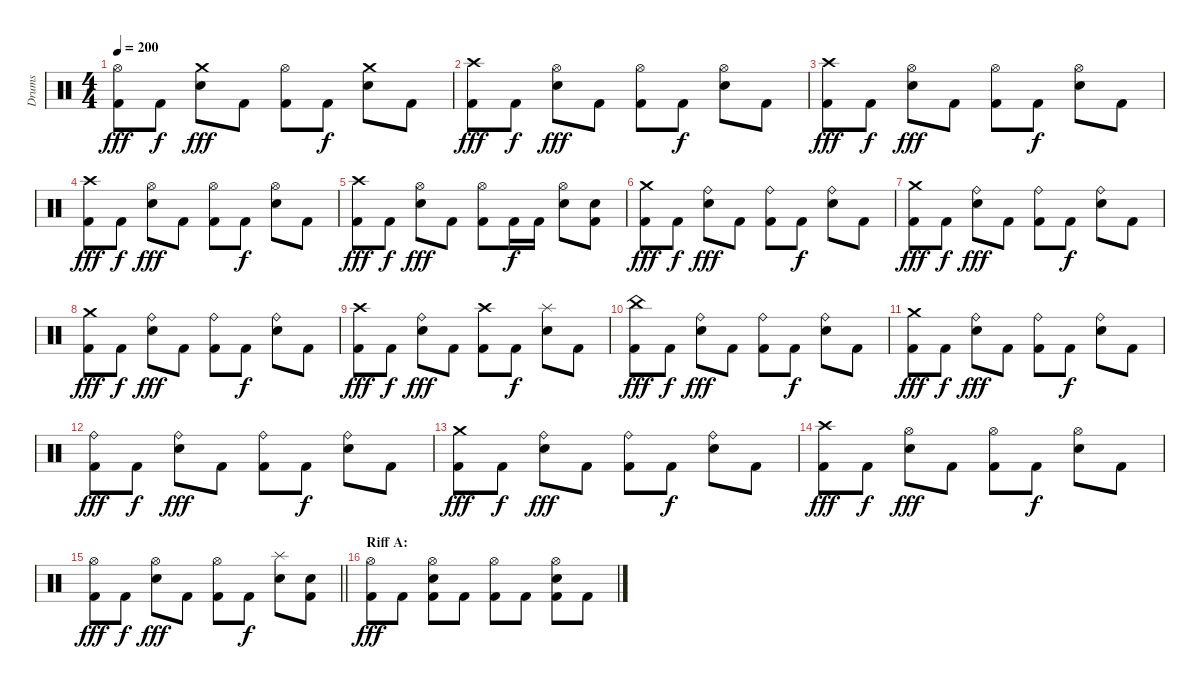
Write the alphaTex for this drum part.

\track ("Drums" "Drums") {instrument percussion}
\staff {score}
\articulation defaults
\ts (4 4)
\tempo 200
\clef neutral
\ks c
("Hi-Hat (open)" "Kick (hit) 2").8{dy fff} "Kick (hit) 2".8{dy f} ("Crash medium (hit)" "Electric Snare (hit)").8{dy fff} "Kick (hit) 2".8 ("Hi-Hat (open)" "Kick (hit) 2").8 "Kick (hit) 2".8{dy f} ("Crash medium (hit)" "Electric Snare (hit)").8 "Kick (hit) 2".8 |
("Crash high (hit)" "Kick (hit) 2").8{dy fff} "Kick (hit) 2".8{dy f} ("Hi-Hat (open)" "Electric Snare (hit)").8{dy fff} "Kick (hit) 2".8 ("Hi-Hat (open)" "Kick (hit) 2").8 "Kick (hit) 2".8{dy f} ("Hi-Hat (open)" "Electric Snare (hit)").8 "Kick (hit) 2".8 |
("Crash high (hit)" "Kick (hit) 2").8{dy fff} "Kick (hit) 2".8{dy f} ("Hi-Hat (open)" "Electric Snare (hit)").8{dy fff} "Kick (hit) 2".8 ("Hi-Hat (open)" "Kick (hit) 2").8 "Kick (hit) 2".8{dy f} ("Hi-Hat (open)" "Electric Snare (hit)").8 "Kick (hit) 2".8 |
("Crash high (hit)" "Kick (hit) 2").8{dy fff} "Kick (hit) 2".8{dy f} ("Hi-Hat (open)" "Electric Snare (hit)").8{dy fff} "Kick (hit) 2".8 ("Hi-Hat (open)" "Kick (hit) 2").8 "Kick (hit) 2".8{dy f} ("Hi-Hat (open)" "Electric Snare (hit)").8 "Kick (hit) 2".8 |
("Crash high (hit)" "Kick (hit) 2").8{dy fff} "Kick (hit) 2".8{dy f} ("Hi-Hat (open)" "Electric Snare (hit)").8{dy fff} "Kick (hit) 2".8 ("Hi-Hat (open)" "Kick (hit) 2").8 "Kick (hit) 2".16{dy f} "Kick (hit) 2".16 ("Hi-Hat (open)" "Electric Snare (hit)").8 ("Electric Snare (hit)" "Kick (hit) 2").8 |
("Crash medium (hit)" "Kick (hit) 2").8{dy fff} "Kick (hit) 2".8{dy f} ("Ride (bell)" "Electric Snare (hit)").8{dy fff} "Kick (hit) 2".8 ("Ride (bell)" "Kick (hit) 2").8 "Kick (hit) 2".8{dy f} ("Ride (bell)" "Electric Snare (hit)").8 "Kick (hit) 2".8 |
("Crash medium (hit)" "Kick (hit) 2").8{dy fff} "Kick (hit) 2".8{dy f} ("Ride (bell)" "Electric Snare (hit)").8{dy fff} "Kick (hit) 2".8 ("Ride (bell)" "Kick (hit) 2").8 "Kick (hit) 2".8{dy f} ("Ride (bell)" "Electric Snare (hit)").8 "Kick (hit) 2".8 |
("Crash medium (hit)" "Kick (hit) 2").8{dy fff} "Kick (hit) 2".8{dy f} ("Ride (bell)" "Electric Snare (hit)").8{dy fff} "Kick (hit) 2".8 ("Ride (bell)" "Kick (hit) 2").8 "Kick (hit) 2".8{dy f} ("Ride (bell)" "Electric Snare (hit)").8 "Kick (hit) 2".8 |
("Crash high (hit)" "Kick (hit) 2").8{dy fff} "Kick (hit) 2".8{dy f} ("Ride (bell)" "Electric Snare (hit)").8{dy fff} "Kick (hit) 2".8 ("Crash high (hit)" "Kick (hit) 2").8 "Kick (hit) 2".8{dy f} ("Splash (hit)" "Electric Snare (hit)").8 "Kick (hit) 2".8 |
("China (hit)" "Kick (hit) 2").8{dy fff} "Kick (hit) 2".8{dy f} ("Ride (bell)" "Electric Snare (hit)").8{dy fff} "Kick (hit) 2".8 ("Ride (bell)" "Kick (hit) 2").8 "Kick (hit) 2".8{dy f} ("Ride (bell)" "Electric Snare (hit)").8 "Kick (hit) 2".8 |
("Crash medium (hit)" "Kick (hit) 2").8{dy fff} "Kick (hit) 2".8{dy f} ("Ride (bell)" "Electric Snare (hit)").8{dy fff} "Kick (hit) 2".8 ("Ride (bell)" "Kick (hit) 2").8 "Kick (hit) 2".8{dy f} ("Ride (bell)" "Electric Snare (hit)").8 "Kick (hit) 2".8 |
("Ride (bell)" "Kick (hit) 2").8{dy fff} "Kick (hit) 2".8{dy f} ("Ride (bell)" "Electric Snare (hit)").8{dy fff} "Kick (hit) 2".8 ("Ride (bell)" "Kick (hit) 2").8 "Kick (hit) 2".8{dy f} ("Ride (bell)" "Electric Snare (hit)").8 "Kick (hit) 2".8 |
("Crash medium (hit)" "Kick (hit) 2").8{dy fff} "Kick (hit) 2".8{dy f} ("Ride (bell)" "Electric Snare (hit)").8{dy fff} "Kick (hit) 2".8 ("Ride (bell)" "Kick (hit) 2").8 "Kick (hit) 2".8{dy f} ("Ride (bell)" "Electric Snare (hit)").8 "Kick (hit) 2".8 |
("Crash high (hit)" "Kick (hit) 2").8{dy fff} "Kick (hit) 2".8{dy f} ("Hi-Hat (open)" "Electric Snare (hit)").8{dy fff} "Kick (hit) 2".8 ("Hi-Hat (open)" "Kick (hit) 2").8 "Kick (hit) 2".8{dy f} ("Hi-Hat (open)" "Electric Snare (hit)").8 "Kick (hit) 2".8 |
\barLineRight lightlight
("Hi-Hat (open)" "Kick (hit) 2").8{dy fff} "Kick (hit) 2".8{dy f} ("Hi-Hat (open)" "Electric Snare (hit)").8{dy fff} "Kick (hit) 2".8 ("Hi-Hat (open)" "Kick (hit) 2").8 "Kick (hit) 2".8{dy f} ("Splash (hit)" "Electric Snare (hit)").8 ("Electric Snare (hit)" "Kick (hit) 2").8 |
\section ("" "Riff A:")
("Hi-Hat (open)" "Kick (hit) 2").8{dy fff} "Kick (hit) 2".8 ("Hi-Hat (open)" "Electric Snare (hit)" "Kick (hit) 2").8 "Kick (hit) 2".8 ("Hi-Hat (open)" "Kick (hit) 2").8 "Kick (hit) 2".8 ("Hi-Hat (open)" "Electric Snare (hit)" "Kick (hit) 2").8 "Kick (hit) 2".8
